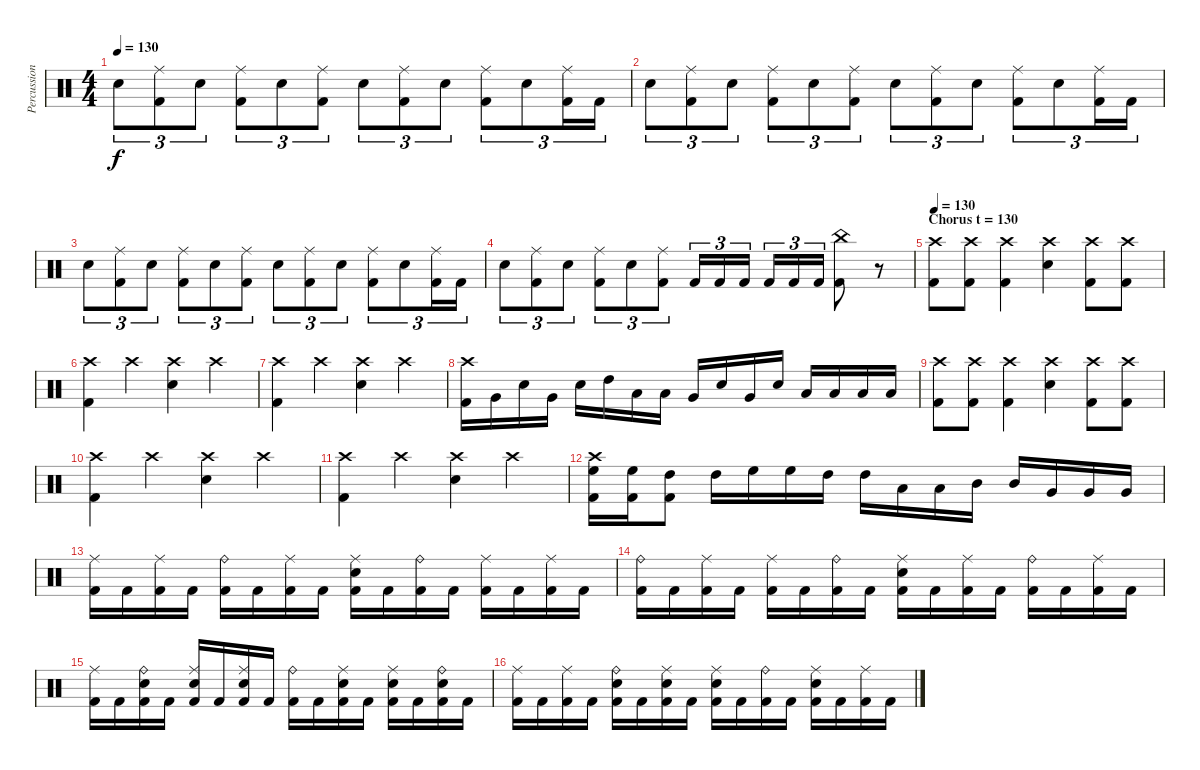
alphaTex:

\track ("Percussion" "Percussion") {instrument percussion}
\staff {score}
\articulation defaults
\ts (4 4)
\tempo 130
\clef neutral
\ks c "Electric Snare (hit)".8{tu (3 2) dy f}
("Ride (middle)" "Kick (hit) 2").8{tu (3 2)} "Electric Snare (hit)".8{tu (3 2)} ("Ride (middle)" "Kick (hit) 2").8{tu (3 2)} "Electric Snare (hit)".8{tu (3 2)} ("Ride (middle)" "Kick (hit) 2").8{tu (3 2)} "Electric Snare (hit)".8{tu (3 2)} ("Ride (middle)" "Kick (hit) 2").8{tu (3 2)} "Electric Snare (hit)".8{tu (3 2)} ("Ride (middle)" "Kick (hit) 2").8{tu (3 2)} "Electric Snare (hit)".8{tu (3 2)} ("Ride (middle)" "Kick (hit) 2").16{tu (3 2)} "Kick (hit) 2".16{tu (3 2)} |
"Electric Snare (hit)".8{tu (3 2)} ("Ride (middle)" "Kick (hit) 2").8{tu (3 2)} "Electric Snare (hit)".8{tu (3 2)} ("Ride (middle)" "Kick (hit) 2").8{tu (3 2)} "Electric Snare (hit)".8{tu (3 2)} ("Ride (middle)" "Kick (hit) 2").8{tu (3 2)} "Electric Snare (hit)".8{tu (3 2)} ("Ride (middle)" "Kick (hit) 2").8{tu (3 2)} "Electric Snare (hit)".8{tu (3 2)} ("Ride (middle)" "Kick (hit) 2").8{tu (3 2)} "Electric Snare (hit)".8{tu (3 2)} ("Ride (middle)" "Kick (hit) 2").16{tu (3 2)} "Kick (hit) 2".16{tu (3 2)} |
"Electric Snare (hit)".8{tu (3 2)} ("Ride (middle)" "Kick (hit) 2").8{tu (3 2)} "Electric Snare (hit)".8{tu (3 2)} ("Ride (middle)" "Kick (hit) 2").8{tu (3 2)} "Electric Snare (hit)".8{tu (3 2)} ("Ride (middle)" "Kick (hit) 2").8{tu (3 2)} "Electric Snare (hit)".8{tu (3 2)} ("Ride (middle)" "Kick (hit) 2").8{tu (3 2)} "Electric Snare (hit)".8{tu (3 2)} ("Ride (middle)" "Kick (hit) 2").8{tu (3 2)} "Electric Snare (hit)".8{tu (3 2)} ("Ride (middle)" "Kick (hit) 2").16{tu (3 2)} "Kick (hit) 2".16{tu (3 2)} |
"Electric Snare (hit)".8{tu (3 2)} ("Ride (middle)" "Kick (hit) 2").8{tu (3 2)} "Electric Snare (hit)".8{tu (3 2)} ("Ride (middle)" "Kick (hit) 2").8{tu (3 2)} "Electric Snare (hit)".8{tu (3 2)} ("Ride (middle)" "Kick (hit) 2").8{tu (3 2)} "Kick (hit) 2".16{tu (3 2)} "Kick (hit) 2".16{tu (3 2)} "Kick (hit) 2".16{tu (3 2)} "Kick (hit) 2".16{tu (3 2)} "Kick (hit) 2".16{tu (3 2)} "Kick (hit) 2".16{tu (3 2)} ("China (hit)" "Kick (hit) 2").8 r.8 |
\section ("" "Chorus t = 130")
\tempo 130
("Crash high (hit)" "Kick (hit) 2").8 ("Crash high (hit)" "Kick (hit) 2").8 ("Crash high (hit)" "Kick (hit) 2").4 ("Crash high (hit)" "Electric Snare (hit)").4 ("Crash high (hit)" "Kick (hit) 2").8 ("Crash high (hit)" "Kick (hit) 2").8 |
("Crash high (hit)" "Kick (hit) 2").4 "Crash high (hit)".4 ("Crash high (hit)" "Electric Snare (hit)").4 "Crash high (hit)".4 |
("Crash high (hit)" "Kick (hit) 2").4 "Crash high (hit)".4 ("Crash high (hit)" "Electric Snare (hit)").4 "Crash high (hit)".4 |
("Crash high (hit)" "Kick (hit) 2").16 "Very Low Tom (hit)".16 "Electric Snare (hit)".16 "Very Low Tom (hit)".16 "Electric Snare (hit)".16 "High Tom (hit)".16 "Low Tom (hit)".16 "Low Tom (hit)".16 "Very Low Tom (hit)".16 "Electric Snare (hit)".16 "Very Low Tom (hit)".16 "Electric Snare (hit)".16 "Low Floor Tom (hit)".16 "Low Floor Tom (hit)".16 "Low Floor Tom (hit)".16 "Low Floor Tom (hit)".16 |
("Crash high (hit)" "Kick (hit) 2").8 ("Crash high (hit)" "Kick (hit) 2").8 ("Crash high (hit)" "Kick (hit) 2").4 ("Crash high (hit)" "Electric Snare (hit)").4 ("Crash high (hit)" "Kick (hit) 2").8 ("Crash high (hit)" "Kick (hit) 2").8 |
("Crash high (hit)" "Kick (hit) 2").4 "Crash high (hit)".4 ("Crash high (hit)" "Electric Snare (hit)").4 "Crash high (hit)".4 |
("Crash high (hit)" "Kick (hit) 2").4 "Crash high (hit)".4 ("Crash high (hit)" "Electric Snare (hit)").4 "Crash high (hit)".4 |
("Crash high (hit)" "High Floor Tom (hit)" "Kick (hit) 2").16 ("High Floor Tom (hit)" "Kick (hit) 2").16 ("High Tom (hit)" "Kick (hit) 2").8 "High Tom (hit)".16 "High Floor Tom (hit)".16 "High Floor Tom (hit)".16 "High Tom (hit)".16 "High Tom (hit)".16 "Low Tom (hit)".16 "Low Tom (hit)".16 "Mid Tom (hit)".16 "Mid Tom (hit)".16 "Very Low Tom (hit)".16 "Very Low Tom (hit)".16 "Very Low Tom (hit)".16 |
("Ride (middle)" "Kick (hit) 2").16 "Kick (hit) 2".16 ("Ride (middle)" "Kick (hit) 2").16 "Kick (hit) 2".16 ("Ride (bell)" "Kick (hit) 2").16 "Kick (hit) 2".16 ("Ride (middle)" "Kick (hit) 2").16 "Kick (hit) 2".16 ("Ride (middle)" "Electric Snare (hit)" "Kick (hit) 2").16 "Kick (hit) 2".16 ("Ride (bell)" "Kick (hit) 2").16 "Kick (hit) 2".16 ("Ride (middle)" "Kick (hit) 2").16 "Kick (hit) 2".16 ("Ride (middle)" "Kick (hit) 2").16 "Kick (hit) 2".16 |
("Ride (bell)" "Kick (hit) 2").16 "Kick (hit) 2".16 ("Ride (middle)" "Kick (hit) 2").16 "Kick (hit) 2".16 ("Ride (middle)" "Kick (hit) 2").16 "Kick (hit) 2".16 ("Ride (bell)" "Kick (hit) 2").16 "Kick (hit) 2".16 ("Ride (middle)" "Electric Snare (hit)" "Kick (hit) 2").16 "Kick (hit) 2".16 ("Ride (middle)" "Kick (hit) 2").16 "Kick (hit) 2".16 ("Ride (bell)" "Kick (hit) 2").16 "Kick (hit) 2".16 ("Ride (middle)" "Kick (hit) 2").16 "Kick (hit) 2".16 |
("Ride (middle)" "Kick (hit) 2").16 "Kick (hit) 2".16 ("Ride (bell)" "Electric Snare (hit)" "Kick (hit) 2").16 "Kick (hit) 2".16 ("Ride (middle)" "Electric Snare (hit)" "Kick (hit) 2").16 "Kick (hit) 2".16 ("Ride (middle)" "Electric Snare (hit)" "Kick (hit) 2").16 "Kick (hit) 2".16 ("Ride (bell)" "Kick (hit) 2").16 "Kick (hit) 2".16 ("Ride (middle)" "Electric Snare (hit)" "Kick (hit) 2").16 "Kick (hit) 2".16 ("Ride (middle)" "Electric Snare (hit)" "Kick (hit) 2").16 "Kick (hit) 2".16 ("Ride (bell)" "Electric Snare (hit)" "Kick (hit) 2").16 "Kick (hit) 2".16 |
("Ride (middle)" "Kick (hit) 2").16 "Kick (hit) 2".16 ("Ride (middle)" "Kick (hit) 2").16 "Kick (hit) 2".16 ("Ride (bell)" "Electric Snare (hit)" "Kick (hit) 2").16 "Kick (hit) 2".16 ("Ride (middle)" "Electric Snare (hit)" "Kick (hit) 2").16 "Kick (hit) 2".16 ("Ride (middle)" "Electric Snare (hit)" "Kick (hit) 2").16 "Kick (hit) 2".16 ("Ride (bell)" "Kick (hit) 2").16 "Kick (hit) 2".16 ("Ride (middle)" "Electric Snare (hit)" "Kick (hit) 2").16 "Kick (hit) 2".16 ("Ride (middle)" "Kick (hit) 2").16 "Kick (hit) 2".16
